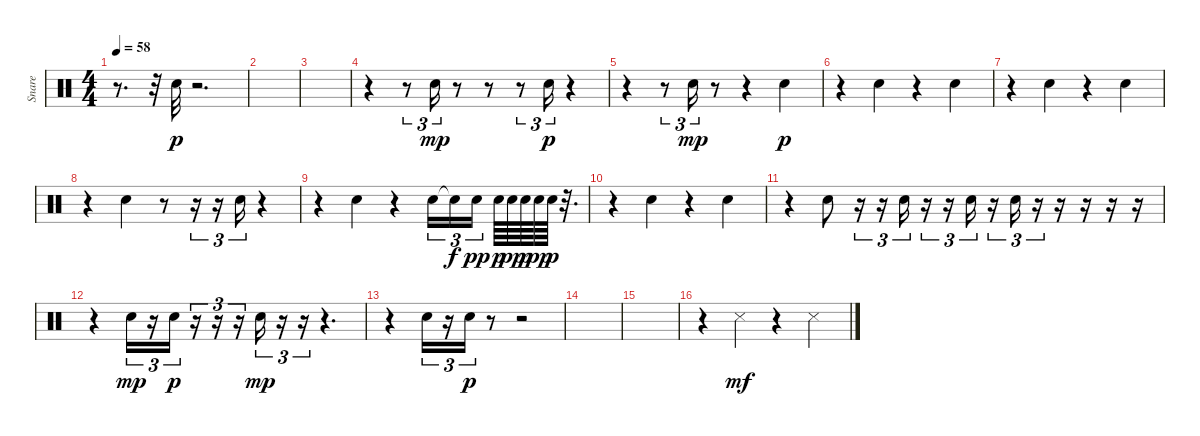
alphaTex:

\track ("Snare" "Snare") {instrument percussion}
\staff {score}
\articulation defaults
\ts (4 4)
\tempo 58
\clef neutral
\ks c
r.8{d dy pp} r.32 "Snare (hit) 2".32{dy p} r.2{d} |
|
|
r.4 r.8{tu (3 2)} "Snare (hit) 2".16{tu (3 2) dy mp} r.8 r.8 r.8{tu (3 2)} "Snare (hit) 2".16{tu (3 2) dy p} r.4 |
r.4 r.8{tu (3 2)} "Snare (hit) 2".16{tu (3 2) dy mp} r.8 r.4 "Snare (hit) 2".4{dy p} |
r.4 "Snare (hit) 2".4 r.4 "Snare (hit) 2".4 |
r.4 "Snare (hit) 2".4 r.4 "Snare (hit) 2".4 |
r.4 "Snare (hit) 2".4 r.8 r.16{tu (3 2)} r.16{tu (3 2)} "Snare (hit) 2".16{tu (3 2)} r.4 |
r.4 "Snare (hit) 2".4 r.4 "Snare (hit) 2".16{tu (3 2)} "Snare (hit)"{t}.16{tu (3 2) dy f} "Snare (hit) 2".16{tu (3 2) dy pp} "Snare (hit) 2".64{dy p} "Snare (hit) 2".64{dy pp} "Snare (hit) 2".64{dy p} "Snare (hit) 2".64{dy pp} "Snare (hit) 2".64{dy p} r.32{d} |
r.4 "Snare (hit) 2".4 r.4 "Snare (hit) 2".4 |
r.4 "Snare (hit) 2".8 r.16{tu (3 2)} r.16{tu (3 2)} "Snare (hit) 2".16{tu (3 2)} r.16{tu (3 2)} r.16{tu (3 2)} "Snare (hit) 2".16{tu (3 2)} r.16{tu (3 2)} "Snare (hit) 2".16{tu (3 2)} r.16{tu (3 2)} r.16 r.16 r.16 r.16 |
r.4 "Snare (hit) 2".16{tu (3 2) dy mp} r.16{tu (3 2)} "Snare (hit) 2".16{tu (3 2) dy p} r.16{tu (3 2)} r.16{tu (3 2)} r.16{tu (3 2)} "Snare (hit) 2".16{tu (3 2) dy mp} r.16{tu (3 2)} r.16{tu (3 2)} r.4{d} |
r.4 "Snare (hit) 2".16{tu (3 2)} r.16{tu (3 2)} "Snare (hit) 2".16{tu (3 2) dy p} r.8 r.2 |
|
|
r.4 "Snare (side stick) 3".4{dy mf} r.4 "Snare (side stick) 3".4
